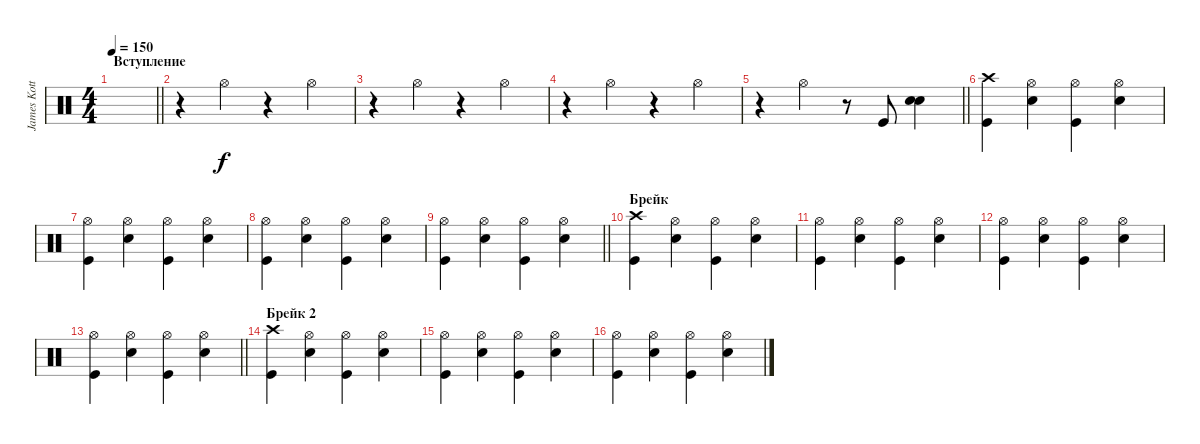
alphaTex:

\track ("James Kottak" "James Kott") {instrument percussion}
\staff {score}
\articulation defaults
\ts (4 4)
\section ("" "Вступление")
\tempo 150
\clef neutral
\barLineRight lightlight
\ks c
|
r.4 "Hi-Hat (open)".4 r.4 "Hi-Hat (open)".4 |
r.4 "Hi-Hat (open)".4 r.4 "Hi-Hat (open)".4 |
r.4 "Hi-Hat (open)".4 r.4 "Hi-Hat (open)".4 |
\barLineRight lightlight
r.4 "Hi-Hat (open)".4 r.8 "Kick (hit)".8 ("Snare (hit) 2" "Snare (hit) 2").4 |
("Crash high (hit)" "Kick (hit)").4 ("Hi-Hat (open)" "Snare (hit) 2").4 ("Hi-Hat (open)" "Kick (hit)").4 ("Hi-Hat (open)" "Snare (hit) 2").4 |
("Hi-Hat (open)" "Kick (hit)").4 ("Hi-Hat (open)" "Snare (hit) 2").4 ("Hi-Hat (open)" "Kick (hit)").4 ("Hi-Hat (open)" "Snare (hit) 2").4 |
("Hi-Hat (open)" "Kick (hit)").4 ("Hi-Hat (open)" "Snare (hit) 2").4 ("Hi-Hat (open)" "Kick (hit)").4 ("Hi-Hat (open)" "Snare (hit) 2").4 |
\barLineRight lightlight
("Hi-Hat (open)" "Kick (hit)").4 ("Hi-Hat (open)" "Snare (hit) 2").4 ("Hi-Hat (open)" "Kick (hit)").4 ("Hi-Hat (open)" "Snare (hit) 2").4 |
\section ("" "Брейк")
("Crash high (hit)" "Kick (hit)").4 ("Hi-Hat (open)" "Snare (hit) 2").4 ("Hi-Hat (open)" "Kick (hit)").4 ("Hi-Hat (open)" "Snare (hit) 2").4 |
("Hi-Hat (open)" "Kick (hit)").4 ("Hi-Hat (open)" "Snare (hit) 2").4 ("Hi-Hat (open)" "Kick (hit)").4 ("Hi-Hat (open)" "Snare (hit) 2").4 |
("Hi-Hat (open)" "Kick (hit)").4 ("Hi-Hat (open)" "Snare (hit) 2").4 ("Hi-Hat (open)" "Kick (hit)").4 ("Hi-Hat (open)" "Snare (hit) 2").4 |
\barLineRight lightlight
("Hi-Hat (open)" "Kick (hit)").4 ("Hi-Hat (open)" "Snare (hit) 2").4 ("Hi-Hat (open)" "Kick (hit)").4 ("Hi-Hat (open)" "Snare (hit) 2").4 |
\section ("" "Брейк 2")
("Crash high (hit)" "Kick (hit)").4 ("Hi-Hat (open)" "Snare (hit) 2").4 ("Hi-Hat (open)" "Kick (hit)").4 ("Hi-Hat (open)" "Snare (hit) 2").4 |
("Hi-Hat (open)" "Kick (hit)").4 ("Hi-Hat (open)" "Snare (hit) 2").4 ("Hi-Hat (open)" "Kick (hit)").4 ("Hi-Hat (open)" "Snare (hit) 2").4 |
("Hi-Hat (open)" "Kick (hit)").4 ("Hi-Hat (open)" "Snare (hit) 2").4 ("Hi-Hat (open)" "Kick (hit)").4 ("Hi-Hat (open)" "Snare (hit) 2").4
